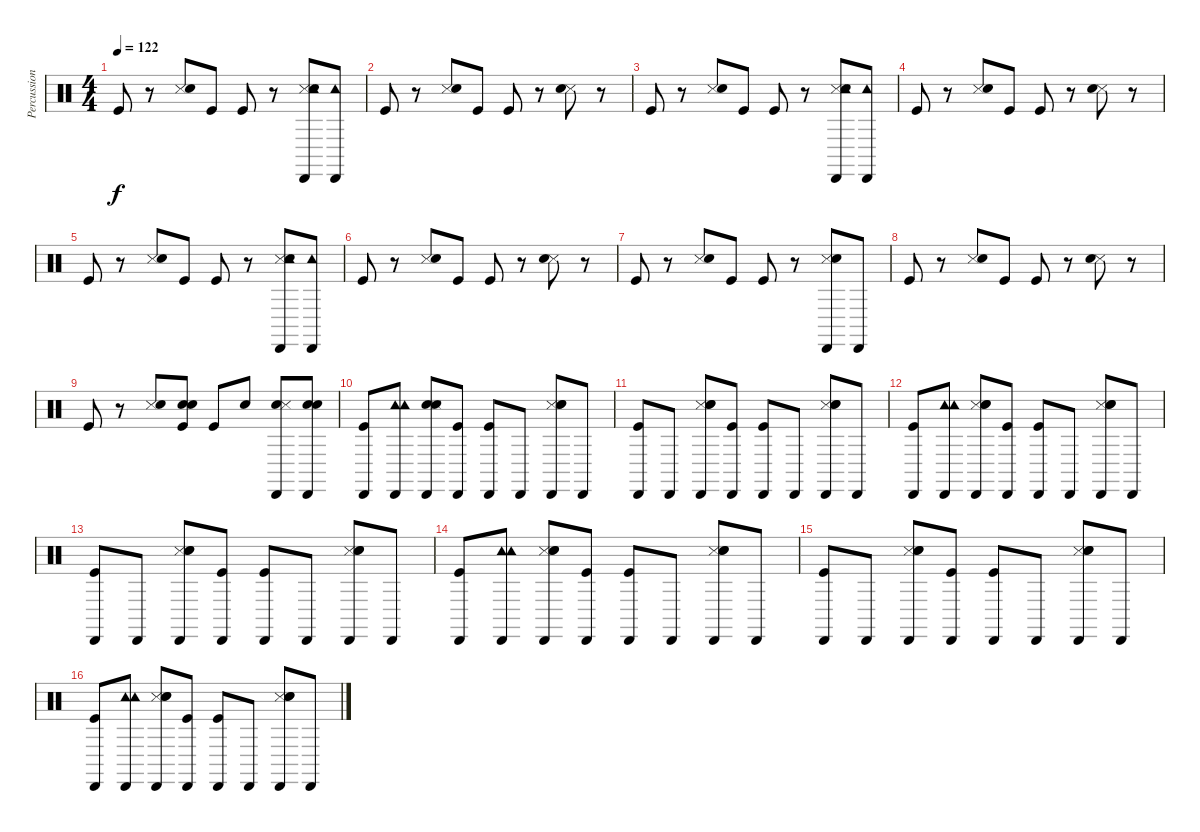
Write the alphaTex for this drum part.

\track ("Percussion" "Percussion") {instrument percussion}
\staff {score}
\articulation defaults
\ts (4 4)
\tempo 122
\clef neutral
\ks c "Kick (hit)".8{dy f}
r.8 ("Snare (side stick) 3" "Snare (hit) 2").8 "Kick (hit)".8 "Kick (hit)".8 r.8 ("Snare (side stick) 3" "Cabasa (hit)" "Tambourine (hit)" "Snare (hit) 2").8 ("Cabasa (hit)" "Tambourine (hit)").8 |
"Kick (hit)".8 r.8 ("Snare (side stick) 3" "Snare (hit) 2").8 "Kick (hit)".8 "Kick (hit)".8 r.8 ("Snare (side stick) 3" "Snare (hit) 2").8 r.8 |
"Kick (hit)".8 r.8 ("Snare (side stick) 3" "Snare (hit) 2").8 "Kick (hit)".8 "Kick (hit)".8 r.8 ("Snare (side stick) 3" "Cabasa (hit)" "Tambourine (hit)" "Snare (hit) 2").8 ("Cabasa (hit)" "Tambourine (hit)").8 |
"Kick (hit)".8 r.8 ("Snare (side stick) 3" "Snare (hit) 2").8 "Kick (hit)".8 "Kick (hit)".8 r.8 ("Snare (side stick) 3" "Snare (hit) 2").8 r.8 |
"Kick (hit)".8 r.8 ("Snare (side stick) 3" "Snare (hit) 2").8 "Kick (hit)".8 "Kick (hit)".8 r.8 ("Snare (side stick) 3" "Cabasa (hit)" "Tambourine (hit)" "Snare (hit) 2").8 ("Cabasa (hit)" "Tambourine (hit)").8 |
"Kick (hit)".8 r.8 ("Snare (side stick) 3" "Snare (hit) 2").8 "Kick (hit)".8 "Kick (hit)".8 r.8 ("Snare (side stick) 3" "Snare (hit) 2").8 r.8 |
"Kick (hit)".8 r.8 ("Snare (side stick) 3" "Snare (hit) 2").8 "Kick (hit)".8 "Kick (hit)".8 r.8 ("Cabasa (hit)" "Snare (side stick) 3" "Snare (hit) 2").8 "Cabasa (hit)".8 |
"Kick (hit)".8 r.8 ("Snare (side stick) 3" "Snare (hit) 2").8 "Kick (hit)".8 "Kick (hit)".8 r.8 ("Snare (side stick) 3" "Snare (hit) 2").8 r.8 |
"Kick (hit)".8 r.8 ("Snare (side stick) 3" "Snare (hit) 2").8 ("Snare (hit) 2" "Kick (hit)" "Snare (hit) 2").8 "Kick (hit)".8 "Snare (hit) 2".8 ("Snare (hit) 2" "Cabasa (hit)" "Snare (side stick) 3").8 ("Snare (hit) 2" "Cabasa (hit)" "Snare (hit) 2").8 |
("Kick (hit)" "Cabasa (hit)").8 ("Tambourine (hit)" "Cabasa (hit)" "Tambourine (hit)").8 ("Snare (hit) 2" "Snare (side stick) 3" "Cabasa (hit)" "Hand Clap (hit)").8 ("Kick (hit)" "Cabasa (hit)").8 ("Kick (hit)" "Cabasa (hit)").8 "Cabasa (hit)".8 ("Snare (side stick) 3" "Cabasa (hit)" "Hand Clap (hit)" "Snare (hit) 2").8 "Cabasa (hit)".8 |
("Kick (hit)" "Cabasa (hit)").8 "Cabasa (hit)".8 ("Snare (side stick) 3" "Cabasa (hit)" "Hand Clap (hit)" "Snare (hit) 2").8 ("Kick (hit)" "Cabasa (hit)").8 ("Kick (hit)" "Cabasa (hit)").8 "Cabasa (hit)".8 ("Snare (side stick) 3" "Cabasa (hit)" "Hand Clap (hit)" "Snare (hit) 2").8 "Cabasa (hit)".8 |
("Kick (hit)" "Cabasa (hit)").8 ("Tambourine (hit)" "Cabasa (hit)" "Tambourine (hit)").8 ("Snare (side stick) 3" "Cabasa (hit)" "Hand Clap (hit)" "Snare (hit) 2").8 ("Kick (hit)" "Cabasa (hit)").8 ("Kick (hit)" "Cabasa (hit)").8 "Cabasa (hit)".8 ("Snare (side stick) 3" "Cabasa (hit)" "Hand Clap (hit)" "Snare (hit) 2").8 "Cabasa (hit)".8 |
("Kick (hit)" "Cabasa (hit)").8 "Cabasa (hit)".8 ("Snare (side stick) 3" "Cabasa (hit)" "Hand Clap (hit)" "Snare (hit) 2").8 ("Kick (hit)" "Cabasa (hit)").8 ("Kick (hit)" "Cabasa (hit)").8 "Cabasa (hit)".8 ("Snare (side stick) 3" "Cabasa (hit)" "Hand Clap (hit)" "Snare (hit) 2").8 "Cabasa (hit)".8 |
("Kick (hit)" "Cabasa (hit)").8 ("Tambourine (hit)" "Cabasa (hit)" "Tambourine (hit)").8 ("Snare (side stick) 3" "Cabasa (hit)" "Hand Clap (hit)" "Snare (hit) 2").8 ("Kick (hit)" "Cabasa (hit)").8 ("Kick (hit)" "Cabasa (hit)").8 "Cabasa (hit)".8 ("Snare (side stick) 3" "Cabasa (hit)" "Hand Clap (hit)" "Snare (hit) 2").8 "Cabasa (hit)".8 |
("Kick (hit)" "Cabasa (hit)").8 "Cabasa (hit)".8 ("Snare (side stick) 3" "Cabasa (hit)" "Hand Clap (hit)" "Snare (hit) 2").8 ("Kick (hit)" "Cabasa (hit)").8 ("Kick (hit)" "Cabasa (hit)").8 "Cabasa (hit)".8 ("Snare (side stick) 3" "Cabasa (hit)" "Hand Clap (hit)" "Snare (hit) 2").8 "Cabasa (hit)".8 |
("Kick (hit)" "Cabasa (hit)").8 ("Tambourine (hit)" "Cabasa (hit)" "Tambourine (hit)").8 ("Snare (side stick) 3" "Cabasa (hit)" "Hand Clap (hit)" "Snare (hit) 2").8 ("Kick (hit)" "Cabasa (hit)").8 ("Kick (hit)" "Cabasa (hit)").8 "Cabasa (hit)".8 ("Snare (side stick) 3" "Cabasa (hit)" "Hand Clap (hit)" "Snare (hit) 2").8 "Cabasa (hit)".8
